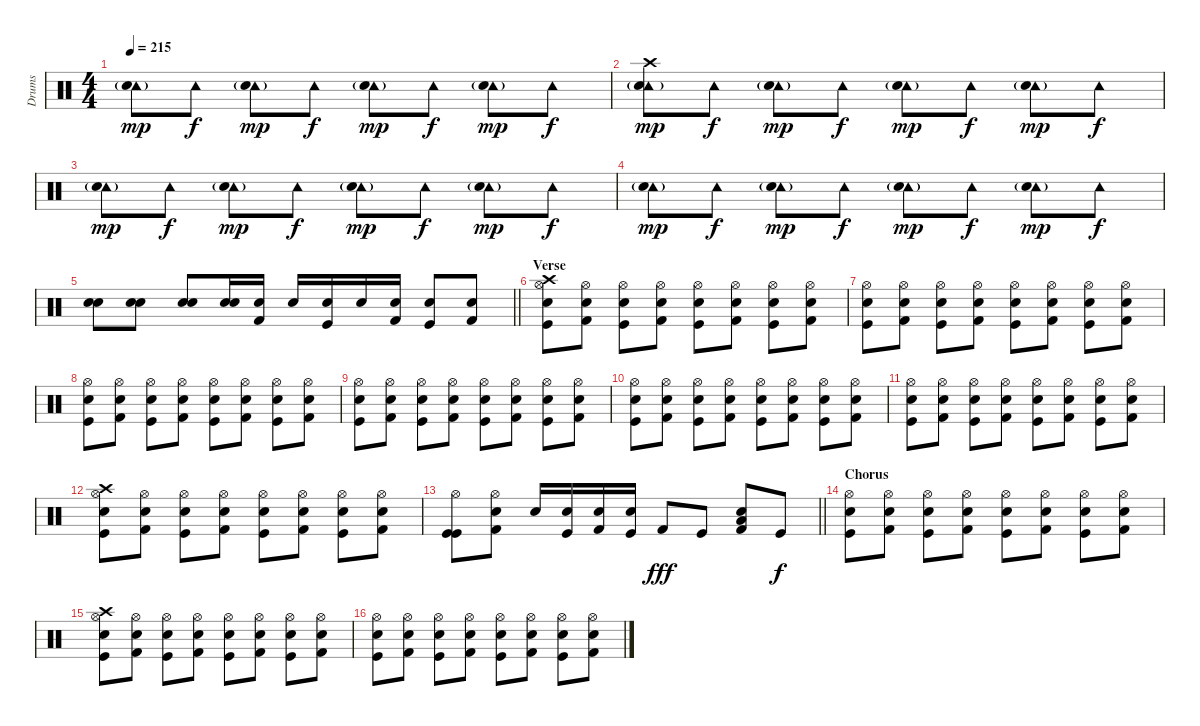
\track ("Drums" "Drums") {instrument percussion}
\staff {score}
\articulation defaults
\ts (4 4)
\tempo 215
\clef neutral
\ks c
("Tambourine (hit)" "Electric Snare (hit)"{g}).8{dy mp} "Tambourine (hit)".8{dy f} ("Tambourine (hit)" "Electric Snare (hit)"{g}).8{dy mp} "Tambourine (hit)".8{dy f} ("Tambourine (hit)" "Electric Snare (hit)"{g}).8{dy mp} "Tambourine (hit)".8{dy f} ("Tambourine (hit)" "Electric Snare (hit)"{g}).8{dy mp} "Tambourine (hit)".8{dy f} |
("Crash high (hit)" "Tambourine (hit)" "Electric Snare (hit)"{g}).8{dy mp} "Tambourine (hit)".8{dy f} ("Tambourine (hit)" "Electric Snare (hit)"{g}).8{dy mp} "Tambourine (hit)".8{dy f} ("Tambourine (hit)" "Electric Snare (hit)"{g}).8{dy mp} "Tambourine (hit)".8{dy f} ("Tambourine (hit)" "Electric Snare (hit)"{g}).8{dy mp} "Tambourine (hit)".8{dy f} |
("Tambourine (hit)" "Electric Snare (hit)"{g}).8{dy mp} "Tambourine (hit)".8{dy f} ("Tambourine (hit)" "Electric Snare (hit)"{g}).8{dy mp} "Tambourine (hit)".8{dy f} ("Tambourine (hit)" "Electric Snare (hit)"{g}).8{dy mp} "Tambourine (hit)".8{dy f} ("Tambourine (hit)" "Electric Snare (hit)"{g}).8{dy mp} "Tambourine (hit)".8{dy f} |
("Tambourine (hit)" "Electric Snare (hit)"{g}).8{dy mp} "Tambourine (hit)".8{dy f} ("Tambourine (hit)" "Electric Snare (hit)"{g}).8{dy mp} "Tambourine (hit)".8{dy f} ("Tambourine (hit)" "Electric Snare (hit)"{g}).8{dy mp} "Tambourine (hit)".8{dy f} ("Tambourine (hit)" "Electric Snare (hit)"{g}).8{dy mp} "Tambourine (hit)".8{dy f} |
\barLineRight lightlight
("Snare (hit) 2" "Electric Snare (hit)").8 ("Snare (hit) 2" "Electric Snare (hit)").8 ("Snare (hit) 2" "Electric Snare (hit)").8 ("Snare (hit) 2" "Electric Snare (hit)").16 ("Kick (hit) 2" "Electric Snare (hit)").16 "Snare (hit) 2".16 ("Kick (hit)" "Electric Snare (hit)").16 "Snare (hit) 2".16 ("Kick (hit) 2" "Electric Snare (hit)").16 ("Snare (hit) 2" "Kick (hit)").8 ("Snare (hit) 2" "Kick (hit) 2").8 |
\section ("" "Verse")
("Crash high (hit)" "Hi-Hat (open)" "Snare (hit) 2" "Kick (hit)").8 ("Hi-Hat (open)" "Electric Snare (hit)" "Kick (hit) 2").8 ("Hi-Hat (open)" "Snare (hit) 2" "Kick (hit)").8 ("Hi-Hat (open)" "Electric Snare (hit)" "Kick (hit) 2").8 ("Hi-Hat (open)" "Snare (hit) 2" "Kick (hit)").8 ("Hi-Hat (open)" "Electric Snare (hit)" "Kick (hit) 2").8 ("Hi-Hat (open)" "Snare (hit) 2" "Kick (hit)").8 ("Hi-Hat (open)" "Electric Snare (hit)" "Kick (hit) 2").8 |
("Hi-Hat (open)" "Snare (hit) 2" "Kick (hit)").8 ("Hi-Hat (open)" "Electric Snare (hit)" "Kick (hit) 2").8 ("Hi-Hat (open)" "Snare (hit) 2" "Kick (hit)").8 ("Hi-Hat (open)" "Electric Snare (hit)" "Kick (hit) 2").8 ("Hi-Hat (open)" "Snare (hit) 2" "Kick (hit)").8 ("Hi-Hat (open)" "Electric Snare (hit)" "Kick (hit) 2").8 ("Hi-Hat (open)" "Snare (hit) 2" "Kick (hit)").8 ("Hi-Hat (open)" "Electric Snare (hit)" "Kick (hit) 2").8 |
("Hi-Hat (open)" "Snare (hit) 2" "Kick (hit)").8 ("Hi-Hat (open)" "Electric Snare (hit)" "Kick (hit) 2").8 ("Hi-Hat (open)" "Snare (hit) 2" "Kick (hit)").8 ("Hi-Hat (open)" "Electric Snare (hit)" "Kick (hit) 2").8 ("Hi-Hat (open)" "Snare (hit) 2" "Kick (hit)").8 ("Hi-Hat (open)" "Electric Snare (hit)" "Kick (hit) 2").8 ("Hi-Hat (open)" "Snare (hit) 2" "Kick (hit)").8 ("Hi-Hat (open)" "Electric Snare (hit)" "Kick (hit) 2").8 |
("Hi-Hat (open)" "Snare (hit) 2" "Kick (hit)").8 ("Hi-Hat (open)" "Electric Snare (hit)" "Kick (hit) 2").8 ("Hi-Hat (open)" "Snare (hit) 2" "Kick (hit)").8 ("Hi-Hat (open)" "Electric Snare (hit)" "Kick (hit) 2").8 ("Hi-Hat (open)" "Snare (hit) 2" "Kick (hit)").8 ("Hi-Hat (open)" "Electric Snare (hit)" "Kick (hit) 2").8 ("Hi-Hat (open)" "Snare (hit) 2" "Kick (hit)").8 ("Hi-Hat (open)" "Electric Snare (hit)" "Kick (hit) 2").8 |
("Hi-Hat (open)" "Snare (hit) 2" "Kick (hit)").8 ("Hi-Hat (open)" "Electric Snare (hit)" "Kick (hit) 2").8 ("Hi-Hat (open)" "Snare (hit) 2" "Kick (hit)").8 ("Hi-Hat (open)" "Electric Snare (hit)" "Kick (hit) 2").8 ("Hi-Hat (open)" "Snare (hit) 2" "Kick (hit)").8 ("Hi-Hat (open)" "Electric Snare (hit)" "Kick (hit) 2").8 ("Hi-Hat (open)" "Snare (hit) 2" "Kick (hit)").8 ("Hi-Hat (open)" "Electric Snare (hit)" "Kick (hit) 2").8 |
("Hi-Hat (open)" "Snare (hit) 2" "Kick (hit)").8 ("Hi-Hat (open)" "Electric Snare (hit)" "Kick (hit) 2").8 ("Hi-Hat (open)" "Snare (hit) 2" "Kick (hit)").8 ("Hi-Hat (open)" "Electric Snare (hit)" "Kick (hit) 2").8 ("Hi-Hat (open)" "Snare (hit) 2" "Kick (hit)").8 ("Hi-Hat (open)" "Electric Snare (hit)" "Kick (hit) 2").8 ("Hi-Hat (open)" "Snare (hit) 2" "Kick (hit)").8 ("Hi-Hat (open)" "Electric Snare (hit)" "Kick (hit) 2").8 |
("Crash high (hit)" "Hi-Hat (open)" "Snare (hit) 2" "Kick (hit)").8 ("Hi-Hat (open)" "Electric Snare (hit)" "Kick (hit) 2").8 ("Hi-Hat (open)" "Snare (hit) 2" "Kick (hit)").8 ("Hi-Hat (open)" "Electric Snare (hit)" "Kick (hit) 2").8 ("Hi-Hat (open)" "Snare (hit) 2" "Kick (hit)").8 ("Hi-Hat (open)" "Electric Snare (hit)" "Kick (hit) 2").8 ("Hi-Hat (open)" "Snare (hit) 2" "Kick (hit)").8 ("Hi-Hat (open)" "Electric Snare (hit)" "Kick (hit) 2").8 |
\barLineRight lightlight
("Hi-Hat (open)" "Kick (hit)" "Kick (hit)").8 ("Hi-Hat (open)" "Electric Snare (hit)" "Kick (hit) 2").8 "Snare (hit) 2".16 ("Snare (hit) 2" "Kick (hit)").16 ("Snare (hit) 2" "Kick (hit) 2").16 ("Snare (hit) 2" "Kick (hit)").16 "Kick (hit) 2".8{dy fff} "Kick (hit)".8 ("Snare (hit) 2" "Low Floor Tom (hit)" "Kick (hit) 2").8 "Kick (hit)".8{dy f} |
\section ("" "Chorus")
("Hi-Hat (open)" "Snare (hit) 2" "Kick (hit)").8 ("Hi-Hat (open)" "Electric Snare (hit)" "Kick (hit) 2").8 ("Hi-Hat (open)" "Snare (hit) 2" "Kick (hit)").8 ("Hi-Hat (open)" "Electric Snare (hit)" "Kick (hit) 2").8 ("Hi-Hat (open)" "Snare (hit) 2" "Kick (hit)").8 ("Hi-Hat (open)" "Electric Snare (hit)" "Kick (hit) 2").8 ("Hi-Hat (open)" "Snare (hit) 2" "Kick (hit)").8 ("Hi-Hat (open)" "Electric Snare (hit)" "Kick (hit) 2").8 |
("Crash high (hit)" "Hi-Hat (open)" "Snare (hit) 2" "Kick (hit)").8 ("Hi-Hat (open)" "Electric Snare (hit)" "Kick (hit) 2").8 ("Hi-Hat (open)" "Snare (hit) 2" "Kick (hit)").8 ("Hi-Hat (open)" "Electric Snare (hit)" "Kick (hit) 2").8 ("Hi-Hat (open)" "Snare (hit) 2" "Kick (hit)").8 ("Hi-Hat (open)" "Electric Snare (hit)" "Kick (hit) 2").8 ("Hi-Hat (open)" "Snare (hit) 2" "Kick (hit)").8 ("Hi-Hat (open)" "Electric Snare (hit)" "Kick (hit) 2").8 |
("Hi-Hat (open)" "Snare (hit) 2" "Kick (hit)").8 ("Hi-Hat (open)" "Electric Snare (hit)" "Kick (hit) 2").8 ("Hi-Hat (open)" "Snare (hit) 2" "Kick (hit)").8 ("Hi-Hat (open)" "Electric Snare (hit)" "Kick (hit) 2").8 ("Hi-Hat (open)" "Snare (hit) 2" "Kick (hit)").8 ("Hi-Hat (open)" "Electric Snare (hit)" "Kick (hit) 2").8 ("Hi-Hat (open)" "Snare (hit) 2" "Kick (hit)").8 ("Hi-Hat (open)" "Electric Snare (hit)" "Kick (hit) 2").8
